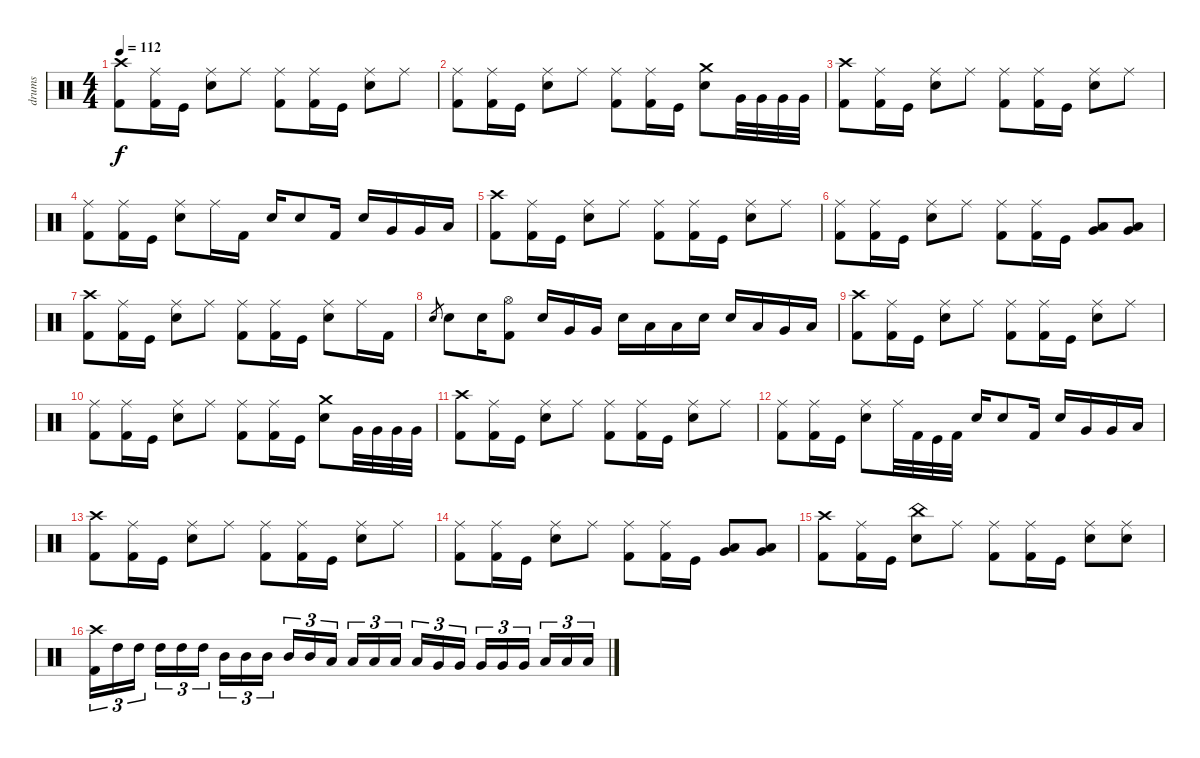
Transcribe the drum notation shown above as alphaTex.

\track ("drums" "drums") {instrument percussion}
\staff {score}
\articulation defaults
\ts (4 4)
\tempo 112
\clef neutral
\ks c
("Crash high (hit)" "Kick (hit) 2").8{dy f} ("Ride (middle)" "Kick (hit) 2").16 "Kick (hit)".16 ("Ride (middle)" "Electric Snare (hit)").8 "Ride (middle)".8 ("Ride (middle)" "Kick (hit) 2").8 ("Ride (middle)" "Kick (hit) 2").16 "Kick (hit)".16 ("Ride (middle)" "Electric Snare (hit)").8 "Ride (middle)".8 |
("Ride (middle)" "Kick (hit) 2").8 ("Ride (middle)" "Kick (hit) 2").16 "Kick (hit)".16 ("Ride (middle)" "Electric Snare (hit)").8 "Ride (middle)".8 ("Ride (middle)" "Kick (hit) 2").8 ("Ride (middle)" "Kick (hit) 2").16 "Kick (hit)".16 ("Crash medium (hit)" "Electric Snare (hit)").8 "Very Low Tom (hit)".32 "Very Low Tom (hit)".32 "Very Low Tom (hit)".32 "Very Low Tom (hit)".32 |
("Crash high (hit)" "Kick (hit) 2").8 ("Ride (middle)" "Kick (hit) 2").16 "Kick (hit)".16 ("Ride (middle)" "Electric Snare (hit)").8 "Ride (middle)".8 ("Ride (middle)" "Kick (hit) 2").8 ("Ride (middle)" "Kick (hit) 2").16 "Kick (hit)".16 ("Ride (middle)" "Electric Snare (hit)").8 "Ride (middle)".8 |
("Ride (middle)" "Kick (hit) 2").8 ("Ride (middle)" "Kick (hit) 2").16 "Kick (hit)".16 ("Ride (middle)" "Electric Snare (hit)").8 "Ride (middle)".16 "Kick (hit) 2".16 "Electric Snare (hit)".16 "Electric Snare (hit)".8 "Kick (hit) 2".16 "Electric Snare (hit)".16 "Very Low Tom (hit)".16 "Very Low Tom (hit)".16 "Low Floor Tom (hit)".16 |
("Crash high (hit)" "Kick (hit) 2").8 ("Ride (middle)" "Kick (hit) 2").16 "Kick (hit)".16 ("Ride (middle)" "Electric Snare (hit)").8 "Ride (middle)".8 ("Ride (middle)" "Kick (hit) 2").8 ("Ride (middle)" "Kick (hit) 2").16 "Kick (hit)".16 ("Ride (middle)" "Electric Snare (hit)").8 "Ride (middle)".8 |
("Ride (middle)" "Kick (hit) 2").8 ("Ride (middle)" "Kick (hit) 2").16 "Kick (hit)".16 ("Ride (middle)" "Electric Snare (hit)").8 "Ride (middle)".8 ("Ride (middle)" "Kick (hit) 2").8 ("Ride (middle)" "Kick (hit) 2").16 "Kick (hit)".16 ("Very Low Tom (hit)" "Low Floor Tom (hit)").8 ("Very Low Tom (hit)" "Low Floor Tom (hit)").8 |
("Crash high (hit)" "Kick (hit) 2").8 ("Ride (middle)" "Kick (hit) 2").16 "Kick (hit)".16 ("Ride (middle)" "Electric Snare (hit)").8 "Ride (middle)".8 ("Ride (middle)" "Kick (hit) 2").8 ("Ride (middle)" "Kick (hit) 2").16 "Kick (hit)".16 ("Ride (middle)" "Electric Snare (hit)").8 "Ride (middle)".16 "Kick (hit) 2".16 |
"Electric Snare (hit)".8{gr} "Electric Snare (hit)".8 "Electric Snare (hit)".16 ("Hi-Hat (open)" "Kick (hit) 2").8 "Electric Snare (hit)".16 "Very Low Tom (hit)".16 "Very Low Tom (hit)".16 "Electric Snare (hit)".16 "Low Tom (hit)".16 "Low Tom (hit)".16 "Electric Snare (hit)".16 "Electric Snare (hit)".16 "Low Tom (hit)".16 "Very Low Tom (hit)".16 "Low Floor Tom (hit)".16 |
("Crash high (hit)" "Kick (hit) 2").8 ("Ride (middle)" "Kick (hit) 2").16 "Kick (hit)".16 ("Ride (middle)" "Electric Snare (hit)").8 "Ride (middle)".8 ("Ride (middle)" "Kick (hit) 2").8 ("Ride (middle)" "Kick (hit) 2").16 "Kick (hit)".16 ("Ride (middle)" "Electric Snare (hit)").8 "Ride (middle)".8 |
("Ride (middle)" "Kick (hit) 2").8 ("Ride (middle)" "Kick (hit) 2").16 "Kick (hit)".16 ("Ride (middle)" "Electric Snare (hit)").8 "Ride (middle)".8 ("Ride (middle)" "Kick (hit) 2").8 ("Ride (middle)" "Kick (hit) 2").16 "Kick (hit)".16 ("Crash medium (hit)" "Electric Snare (hit)").8 "Very Low Tom (hit)".32 "Very Low Tom (hit)".32 "Very Low Tom (hit)".32 "Very Low Tom (hit)".32 |
("Crash high (hit)" "Kick (hit) 2").8 ("Ride (middle)" "Kick (hit) 2").16 "Kick (hit)".16 ("Ride (middle)" "Electric Snare (hit)").8 "Ride (middle)".8 ("Ride (middle)" "Kick (hit) 2").8 ("Ride (middle)" "Kick (hit) 2").16 "Kick (hit)".16 ("Ride (middle)" "Electric Snare (hit)").8 "Ride (middle)".8 |
("Ride (middle)" "Kick (hit) 2").8 ("Ride (middle)" "Kick (hit) 2").16 "Kick (hit)".16 ("Ride (middle)" "Electric Snare (hit)").8 "Ride (middle)".32 "Kick (hit) 2".32 "Kick (hit)".32 "Kick (hit) 2".32 "Electric Snare (hit)".16 "Electric Snare (hit)".8 "Kick (hit) 2".16 "Electric Snare (hit)".16 "Very Low Tom (hit)".16 "Very Low Tom (hit)".16 "Low Floor Tom (hit)".16 |
("Crash high (hit)" "Kick (hit) 2").8 ("Ride (middle)" "Kick (hit) 2").16 "Kick (hit)".16 ("Ride (middle)" "Electric Snare (hit)").8 "Ride (middle)".8 ("Ride (middle)" "Kick (hit) 2").8 ("Ride (middle)" "Kick (hit) 2").16 "Kick (hit)".16 ("Ride (middle)" "Electric Snare (hit)").8 "Ride (middle)".8 |
("Ride (middle)" "Kick (hit) 2").8 ("Ride (middle)" "Kick (hit) 2").16 "Kick (hit)".16 ("Ride (middle)" "Electric Snare (hit)").8 "Ride (middle)".8 ("Ride (middle)" "Kick (hit) 2").8 ("Ride (middle)" "Kick (hit) 2").16 "Kick (hit)".16 ("Very Low Tom (hit)" "Low Floor Tom (hit)").8 ("Very Low Tom (hit)" "Low Floor Tom (hit)").8 |
("Crash high (hit)" "Kick (hit) 2").8 ("Ride (middle)" "Kick (hit) 2").16 "Kick (hit)".16 ("China (hit)" "Electric Snare (hit)").8 "Ride (middle)".8 ("Ride (middle)" "Kick (hit) 2").8 ("Ride (middle)" "Kick (hit) 2").16 "Kick (hit)".16 ("Ride (middle)" "Electric Snare (hit)").8 ("Ride (middle)" "Electric Snare (hit)").8 |
("Crash high (hit)" "Kick (hit) 2").16{tu (3 2)} "High Tom (hit)".16{tu (3 2)} "High Tom (hit)".16{tu (3 2)} "High Tom (hit)".16{tu (3 2)} "High Tom (hit)".16{tu (3 2)} "High Tom (hit)".16{tu (3 2)} "Mid Tom (hit)".16{tu (3 2)} "Mid Tom (hit)".16{tu (3 2)} "Mid Tom (hit)".16{tu (3 2)} "Mid Tom (hit)".16{tu (3 2)} "Mid Tom (hit)".16{tu (3 2)} "Low Tom (hit)".16{tu (3 2)} "Low Tom (hit)".16{tu (3 2)} "Low Tom (hit)".16{tu (3 2)} "Low Tom (hit)".16{tu (3 2)} "Low Tom (hit)".16{tu (3 2)} "Very Low Tom (hit)".16{tu (3 2)} "Very Low Tom (hit)".16{tu (3 2)} "Very Low Tom (hit)".16{tu (3 2)} "Very Low Tom (hit)".16{tu (3 2)} "Very Low Tom (hit)".16{tu (3 2)} "Low Floor Tom (hit)".16{tu (3 2)} "Low Floor Tom (hit)".16{tu (3 2)} "Low Floor Tom (hit)".16{tu (3 2)}
